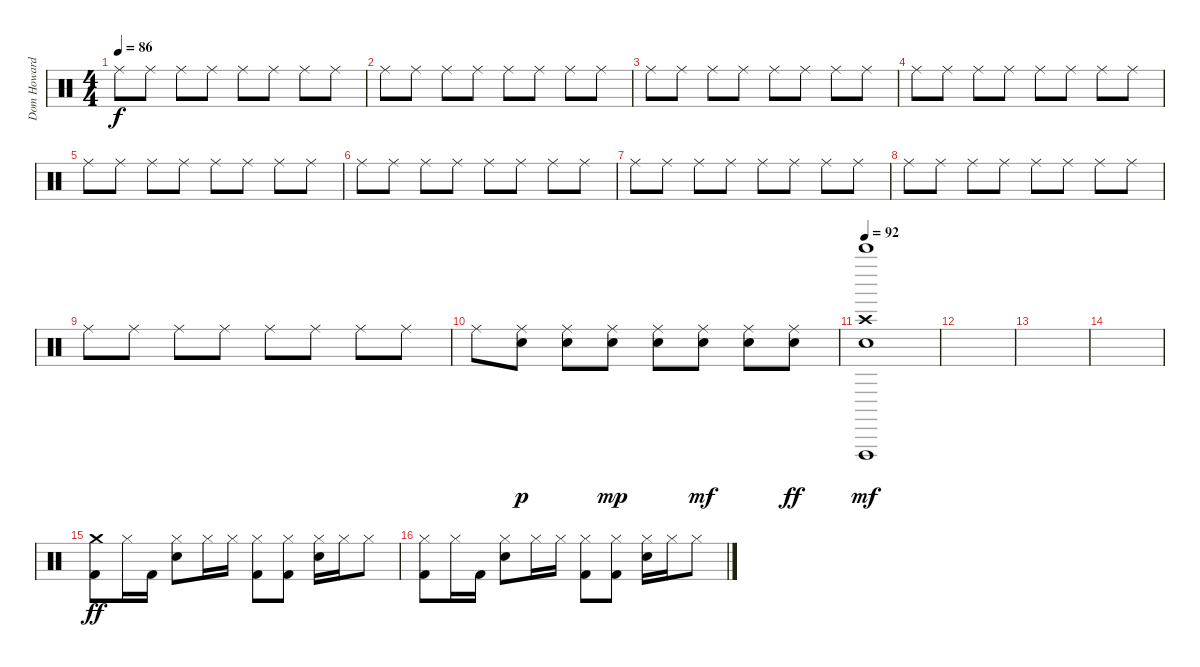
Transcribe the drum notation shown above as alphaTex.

\track ("Dom Howard" "Dom Howard") {instrument percussion}
\staff {score}
\articulation defaults
\ts (4 4)
\tempo 86
\clef neutral
\ks c "Ride (middle)".8{dy f} "Ride (middle)".8 "Ride (middle)".8 "Ride (middle)".8 "Ride (middle)".8 "Ride (middle)".8 "Ride (middle)".8 "Ride (middle)".8
|
"Ride (middle)".8 "Ride (middle)".8 "Ride (middle)".8 "Ride (middle)".8 "Ride (middle)".8 "Ride (middle)".8 "Ride (middle)".8 "Ride (middle)".8 |
"Ride (middle)".8 "Ride (middle)".8 "Ride (middle)".8 "Ride (middle)".8 "Ride (middle)".8 "Ride (middle)".8 "Ride (middle)".8 "Ride (middle)".8 |
"Ride (middle)".8 "Ride (middle)".8 "Ride (middle)".8 "Ride (middle)".8 "Ride (middle)".8 "Ride (middle)".8 "Ride (middle)".8 "Ride (middle)".8 |
"Ride (middle)".8 "Ride (middle)".8 "Ride (middle)".8 "Ride (middle)".8 "Ride (middle)".8 "Ride (middle)".8 "Ride (middle)".8 "Ride (middle)".8 |
"Ride (middle)".8 "Ride (middle)".8 "Ride (middle)".8 "Ride (middle)".8 "Ride (middle)".8 "Ride (middle)".8 "Ride (middle)".8 "Ride (middle)".8 |
"Ride (middle)".8 "Ride (middle)".8 "Ride (middle)".8 "Ride (middle)".8 "Ride (middle)".8 "Ride (middle)".8 "Ride (middle)".8 "Ride (middle)".8 |
"Ride (middle)".8 "Ride (middle)".8 "Ride (middle)".8 "Ride (middle)".8 "Ride (middle)".8 "Ride (middle)".8 "Ride (middle)".8 "Ride (middle)".8 |
"Ride (middle)".8 "Ride (middle)".8 "Ride (middle)".8 "Ride (middle)".8 "Ride (middle)".8 "Ride (middle)".8 "Ride (middle)".8 "Ride (middle)".8 |
"Ride (middle)".8 ("Ride (middle)" "Electric Snare (hit)").8{dy p} ("Ride (middle)" "Electric Snare (hit)").8 ("Ride (middle)" "Electric Snare (hit)").8{dy mp} ("Ride (middle)" "Electric Snare (hit)").8 ("Ride (middle)" "Electric Snare (hit)").8{dy mf} ("Ride (middle)" "Electric Snare (hit)").8 ("Ride (middle)" "Electric Snare (hit)").8{dy ff} |
\tempo 92
("Crash high (hit)" "Electric Snare (hit)" "Vibraslap (hit)" "Bell Tree (hit)").1{dy mf} |
|
|
|
("Crash medium (hit)" "Kick (hit) 2").8{dy ff} "Hi-Hat (closed)".16 "Kick (hit) 2".16 ("Hi-Hat (closed)" "Electric Snare (hit)").8 "Hi-Hat (closed)".16 "Hi-Hat (closed)".16 ("Hi-Hat (closed)" "Kick (hit) 2").8 ("Hi-Hat (closed)" "Kick (hit) 2").8 ("Hi-Hat (closed)" "Electric Snare (hit)").16 "Hi-Hat (closed)".16 "Hi-Hat (closed)".8 |
("Hi-Hat (closed)" "Kick (hit) 2").8 "Hi-Hat (closed)".16 "Kick (hit) 2".16 ("Hi-Hat (closed)" "Electric Snare (hit)").8 "Hi-Hat (closed)".16 "Hi-Hat (closed)".16 ("Hi-Hat (closed)" "Kick (hit) 2").8 ("Hi-Hat (closed)" "Kick (hit) 2").8 ("Hi-Hat (closed)" "Electric Snare (hit)").16 "Hi-Hat (closed)".16 "Hi-Hat (closed)".8
